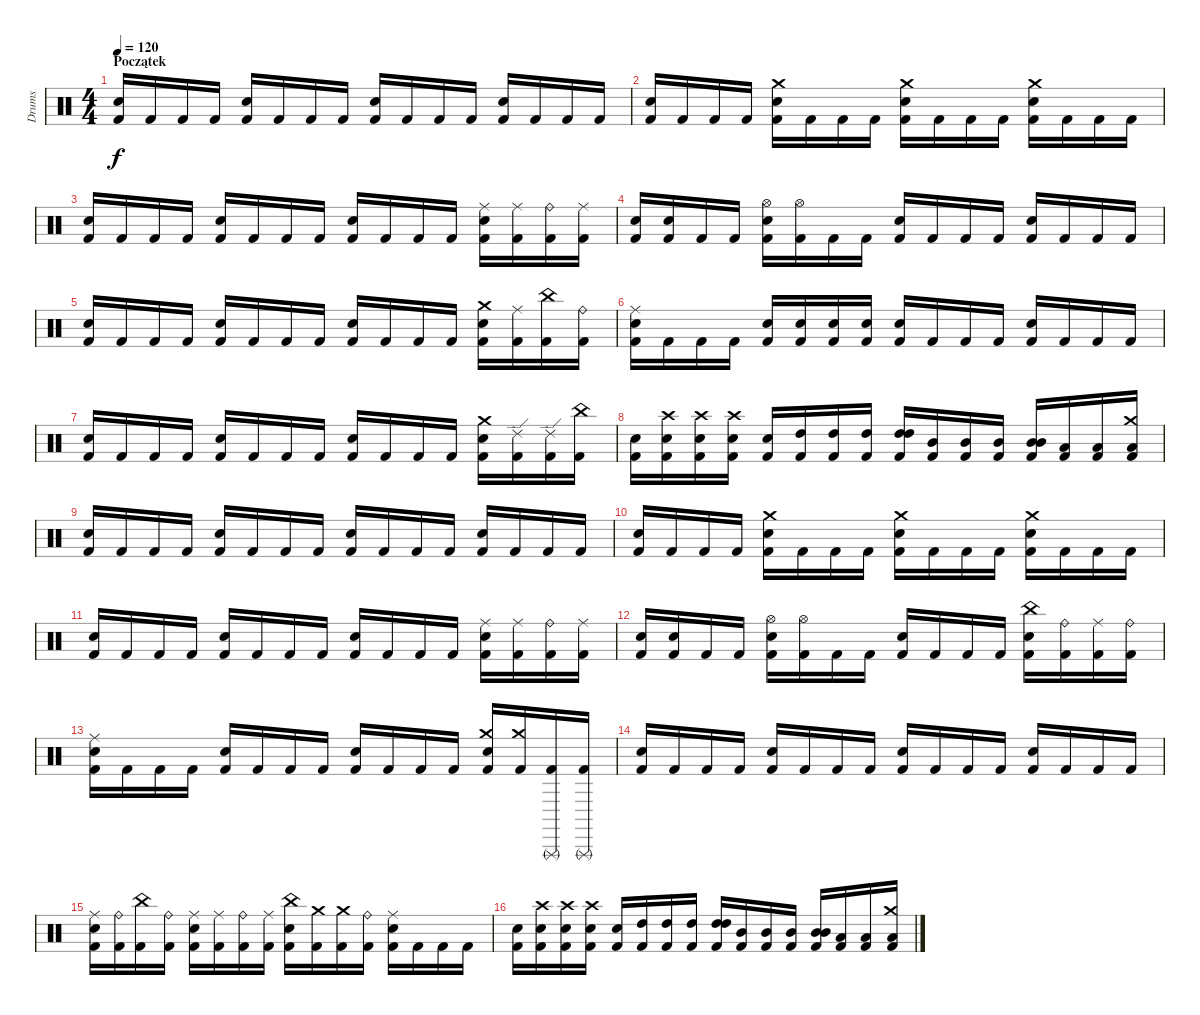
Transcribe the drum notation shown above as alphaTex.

\track ("Drums" "Drums") {instrument percussion}
\staff {score}
\articulation defaults
\ts (4 4)
\section ("" "Początek")
\tempo 120
\tempo 150
\tempo 120
\clef neutral
\ks c
("Electric Snare (hit)" "Kick (hit) 2").16{dy f} "Kick (hit) 2".16 "Kick (hit) 2".16 "Kick (hit) 2".16 ("Electric Snare (hit)" "Kick (hit) 2").16 "Kick (hit) 2".16 "Kick (hit) 2".16 "Kick (hit) 2".16 ("Electric Snare (hit)" "Kick (hit) 2").16 "Kick (hit) 2".16 "Kick (hit) 2".16 "Kick (hit) 2".16 ("Electric Snare (hit)" "Kick (hit) 2").16 "Kick (hit) 2".16 "Kick (hit) 2".16 "Kick (hit) 2".16 |
("Electric Snare (hit)" "Kick (hit) 2").16 "Kick (hit) 2".16 "Kick (hit) 2".16 "Kick (hit) 2".16 ("Crash medium (hit)" "Electric Snare (hit)" "Kick (hit) 2").16 "Kick (hit) 2".16 "Kick (hit) 2".16 "Kick (hit) 2".16 ("Crash medium (hit)" "Electric Snare (hit)" "Kick (hit) 2").16 "Kick (hit) 2".16 "Kick (hit) 2".16 "Kick (hit) 2".16 ("Crash medium (hit)" "Electric Snare (hit)" "Kick (hit) 2").16 "Kick (hit) 2".16 "Kick (hit) 2".16 "Kick (hit) 2".16 |
("Electric Snare (hit)" "Kick (hit) 2").16 "Kick (hit) 2".16 "Kick (hit) 2".16 "Kick (hit) 2".16 ("Electric Snare (hit)" "Kick (hit) 2").16 "Kick (hit) 2".16 "Kick (hit) 2".16 "Kick (hit) 2".16 ("Electric Snare (hit)" "Kick (hit) 2").16 "Kick (hit) 2".16 "Kick (hit) 2".16 "Kick (hit) 2".16 ("Ride (middle)" "Electric Snare (hit)" "Kick (hit) 2").16 ("Ride (middle)" "Kick (hit) 2").16 ("Ride (bell)" "Kick (hit) 2").16 ("Ride (middle)" "Kick (hit) 2").16 |
("Electric Snare (hit)" "Kick (hit) 2").16 ("Electric Snare (hit)" "Kick (hit) 2").16 "Kick (hit) 2".16 "Kick (hit) 2".16 ("Hi-Hat (open)" "Electric Snare (hit)" "Kick (hit) 2").16 ("Hi-Hat (open)" "Kick (hit) 2").16 "Kick (hit) 2".16 "Kick (hit) 2".16 ("Electric Snare (hit)" "Kick (hit) 2").16 "Kick (hit) 2".16 "Kick (hit) 2".16 "Kick (hit) 2".16 ("Electric Snare (hit)" "Kick (hit) 2").16 "Kick (hit) 2".16 "Kick (hit) 2".16 "Kick (hit) 2".16 |
("Electric Snare (hit)" "Kick (hit) 2").16 "Kick (hit) 2".16 "Kick (hit) 2".16 "Kick (hit) 2".16 ("Electric Snare (hit)" "Kick (hit) 2").16 "Kick (hit) 2".16 "Kick (hit) 2".16 "Kick (hit) 2".16 ("Electric Snare (hit)" "Kick (hit) 2").16 "Kick (hit) 2".16 "Kick (hit) 2".16 "Kick (hit) 2".16 ("Crash medium (hit)" "Electric Snare (hit)" "Kick (hit) 2").16 ("Ride (middle)" "Kick (hit) 2").16 ("China (hit)" "Kick (hit) 2").16 ("Ride (bell)" "Kick (hit) 2").16 |
("Ride (middle)" "Electric Snare (hit)" "Kick (hit) 2").16 "Kick (hit) 2".16 "Kick (hit) 2".16 "Kick (hit) 2".16 ("Electric Snare (hit)" "Kick (hit) 2").16 ("Electric Snare (hit)" "Kick (hit) 2").16 ("Electric Snare (hit)" "Kick (hit) 2").16 ("Electric Snare (hit)" "Kick (hit) 2").16 ("Electric Snare (hit)" "Kick (hit) 2").16 "Kick (hit) 2".16 "Kick (hit) 2".16 "Kick (hit) 2".16 ("Electric Snare (hit)" "Kick (hit) 2").16 "Kick (hit) 2".16 "Kick (hit) 2".16 "Kick (hit) 2".16 |
("Electric Snare (hit)" "Kick (hit) 2").16 "Kick (hit) 2".16 "Kick (hit) 2".16 "Kick (hit) 2".16 ("Electric Snare (hit)" "Kick (hit) 2").16 "Kick (hit) 2".16 "Kick (hit) 2".16 "Kick (hit) 2".16 ("Electric Snare (hit)" "Kick (hit) 2").16 "Kick (hit) 2".16 "Kick (hit) 2".16 "Kick (hit) 2".16 ("Crash medium (hit)" "Electric Snare (hit)" "Kick (hit) 2").16 ("Ride (edge) 2" "Kick (hit) 2").16 ("Ride (edge) 2" "Kick (hit) 2").16 ("China (hit)" "Kick (hit) 2").16 |
("Electric Snare (hit)" "Kick (hit) 2").16 ("Electric Snare (hit)" "Crash high (hit)" "Kick (hit) 2").16 ("Electric Snare (hit)" "Crash high (hit)" "Kick (hit) 2").16 ("Crash high (hit)" "Electric Snare (hit)" "Kick (hit) 2").16 ("Electric Snare (hit)" "Kick (hit) 2").16 ("High Tom (hit)" "Kick (hit) 2").16 ("High Tom (hit)" "Kick (hit) 2").16 ("High Tom (hit)" "Kick (hit) 2").16 ("High Tom (hit)" "High Tom (hit)" "Kick (hit) 2").16 ("Mid Tom (hit)" "Kick (hit) 2").16 ("Mid Tom (hit)" "Kick (hit) 2").16 ("Mid Tom (hit)" "Kick (hit) 2").16 ("Mid Tom (hit)" "Mid Tom (hit)" "Kick (hit) 2").16 ("Low Tom (hit)" "Kick (hit) 2").16 ("Low Tom (hit)" "Kick (hit) 2").16 ("Crash medium (hit)" "Low Tom (hit)" "Kick (hit) 2").16 |
("Electric Snare (hit)" "Kick (hit) 2").16 "Kick (hit) 2".16 "Kick (hit) 2".16 "Kick (hit) 2".16 ("Electric Snare (hit)" "Kick (hit) 2").16 "Kick (hit) 2".16 "Kick (hit) 2".16 "Kick (hit) 2".16 ("Electric Snare (hit)" "Kick (hit) 2").16 "Kick (hit) 2".16 "Kick (hit) 2".16 "Kick (hit) 2".16 ("Electric Snare (hit)" "Kick (hit) 2").16 "Kick (hit) 2".16 "Kick (hit) 2".16 "Kick (hit) 2".16 |
("Electric Snare (hit)" "Kick (hit) 2").16 "Kick (hit) 2".16 "Kick (hit) 2".16 "Kick (hit) 2".16 ("Crash medium (hit)" "Electric Snare (hit)" "Kick (hit) 2").16 "Kick (hit) 2".16 "Kick (hit) 2".16 "Kick (hit) 2".16 ("Crash medium (hit)" "Electric Snare (hit)" "Kick (hit) 2").16 "Kick (hit) 2".16 "Kick (hit) 2".16 "Kick (hit) 2".16 ("Crash medium (hit)" "Electric Snare (hit)" "Kick (hit) 2").16 "Kick (hit) 2".16 "Kick (hit) 2".16 "Kick (hit) 2".16 |
("Electric Snare (hit)" "Kick (hit) 2").16 "Kick (hit) 2".16 "Kick (hit) 2".16 "Kick (hit) 2".16 ("Electric Snare (hit)" "Kick (hit) 2").16 "Kick (hit) 2".16 "Kick (hit) 2".16 "Kick (hit) 2".16 ("Electric Snare (hit)" "Kick (hit) 2").16 "Kick (hit) 2".16 "Kick (hit) 2".16 "Kick (hit) 2".16 ("Ride (middle)" "Electric Snare (hit)" "Kick (hit) 2").16 ("Ride (middle)" "Kick (hit) 2").16 ("Ride (bell)" "Kick (hit) 2").16 ("Ride (middle)" "Kick (hit) 2").16 |
("Electric Snare (hit)" "Kick (hit) 2").16 ("Electric Snare (hit)" "Kick (hit) 2").16 "Kick (hit) 2".16 "Kick (hit) 2".16 ("Hi-Hat (open)" "Electric Snare (hit)" "Kick (hit) 2").16 ("Hi-Hat (open)" "Kick (hit) 2").16 "Kick (hit) 2".16 "Kick (hit) 2".16 ("Electric Snare (hit)" "Kick (hit) 2").16 "Kick (hit) 2".16 "Kick (hit) 2".16 "Kick (hit) 2".16 ("China (hit)" "Electric Snare (hit)" "Kick (hit) 2").16 ("Ride (bell)" "Kick (hit) 2").16 ("Ride (middle)" "Kick (hit) 2").16 ("Ride (bell)" "Kick (hit) 2").16 |
("Ride (middle)" "Electric Snare (hit)" "Kick (hit) 2").16 "Kick (hit) 2".16 "Kick (hit) 2".16 "Kick (hit) 2".16 ("Electric Snare (hit)" "Kick (hit) 2").16 "Kick (hit) 2".16 "Kick (hit) 2".16 "Kick (hit) 2".16 ("Electric Snare (hit)" "Kick (hit) 2").16 "Kick (hit) 2".16 "Kick (hit) 2".16 "Kick (hit) 2".16 ("Crash medium (hit)" "Electric Snare (hit)" "Kick (hit) 2").16 ("Crash medium (hit)" "Kick (hit) 2").16 ("Triangle (rnute)" "Kick (hit) 2").16 ("Triangle (rnute)" "Kick (hit) 2").16 |
("Electric Snare (hit)" "Kick (hit) 2").16 "Kick (hit) 2".16 "Kick (hit) 2".16 "Kick (hit) 2".16 ("Electric Snare (hit)" "Kick (hit) 2").16 "Kick (hit) 2".16 "Kick (hit) 2".16 "Kick (hit) 2".16 ("Electric Snare (hit)" "Kick (hit) 2").16 "Kick (hit) 2".16 "Kick (hit) 2".16 "Kick (hit) 2".16 ("Electric Snare (hit)" "Kick (hit) 2").16 "Kick (hit) 2".16 "Kick (hit) 2".16 "Kick (hit) 2".16 |
("Ride (middle)" "Electric Snare (hit)" "Kick (hit) 2").16 ("Ride (bell)" "Kick (hit) 2").16 ("China (hit)" "Kick (hit) 2").16 ("Ride (bell)" "Kick (hit) 2").16 ("Ride (middle)" "Electric Snare (hit)" "Kick (hit) 2").16 ("Ride (middle)" "Kick (hit) 2").16 ("Ride (bell)" "Kick (hit) 2").16 ("Ride (middle)" "Kick (hit) 2").16 ("China (hit)" "Electric Snare (hit)" "Kick (hit) 2").16 ("Crash medium (hit)" "Kick (hit) 2").16 ("Crash medium (hit)" "Kick (hit) 2").16 ("Ride (bell)" "Kick (hit) 2").16 ("Ride (middle)" "Electric Snare (hit)" "Kick (hit) 2").16 "Kick (hit) 2".16 "Kick (hit) 2".16 "Kick (hit) 2".16 |
("Electric Snare (hit)" "Kick (hit) 2").16 ("Electric Snare (hit)" "Crash high (hit)" "Kick (hit) 2").16 ("Electric Snare (hit)" "Crash high (hit)" "Kick (hit) 2").16 ("Crash high (hit)" "Electric Snare (hit)" "Kick (hit) 2").16 ("Electric Snare (hit)" "Kick (hit) 2").16 ("High Tom (hit)" "Kick (hit) 2").16 ("High Tom (hit)" "Kick (hit) 2").16 ("High Tom (hit)" "Kick (hit) 2").16 ("High Tom (hit)" "High Tom (hit)" "Kick (hit) 2").16 ("Mid Tom (hit)" "Kick (hit) 2").16 ("Mid Tom (hit)" "Kick (hit) 2").16 ("Mid Tom (hit)" "Kick (hit) 2").16 ("Mid Tom (hit)" "Mid Tom (hit)" "Kick (hit) 2").16 ("Low Tom (hit)" "Kick (hit) 2").16 ("Low Tom (hit)" "Kick (hit) 2").16 ("Crash medium (hit)" "Low Tom (hit)" "Kick (hit) 2").16
